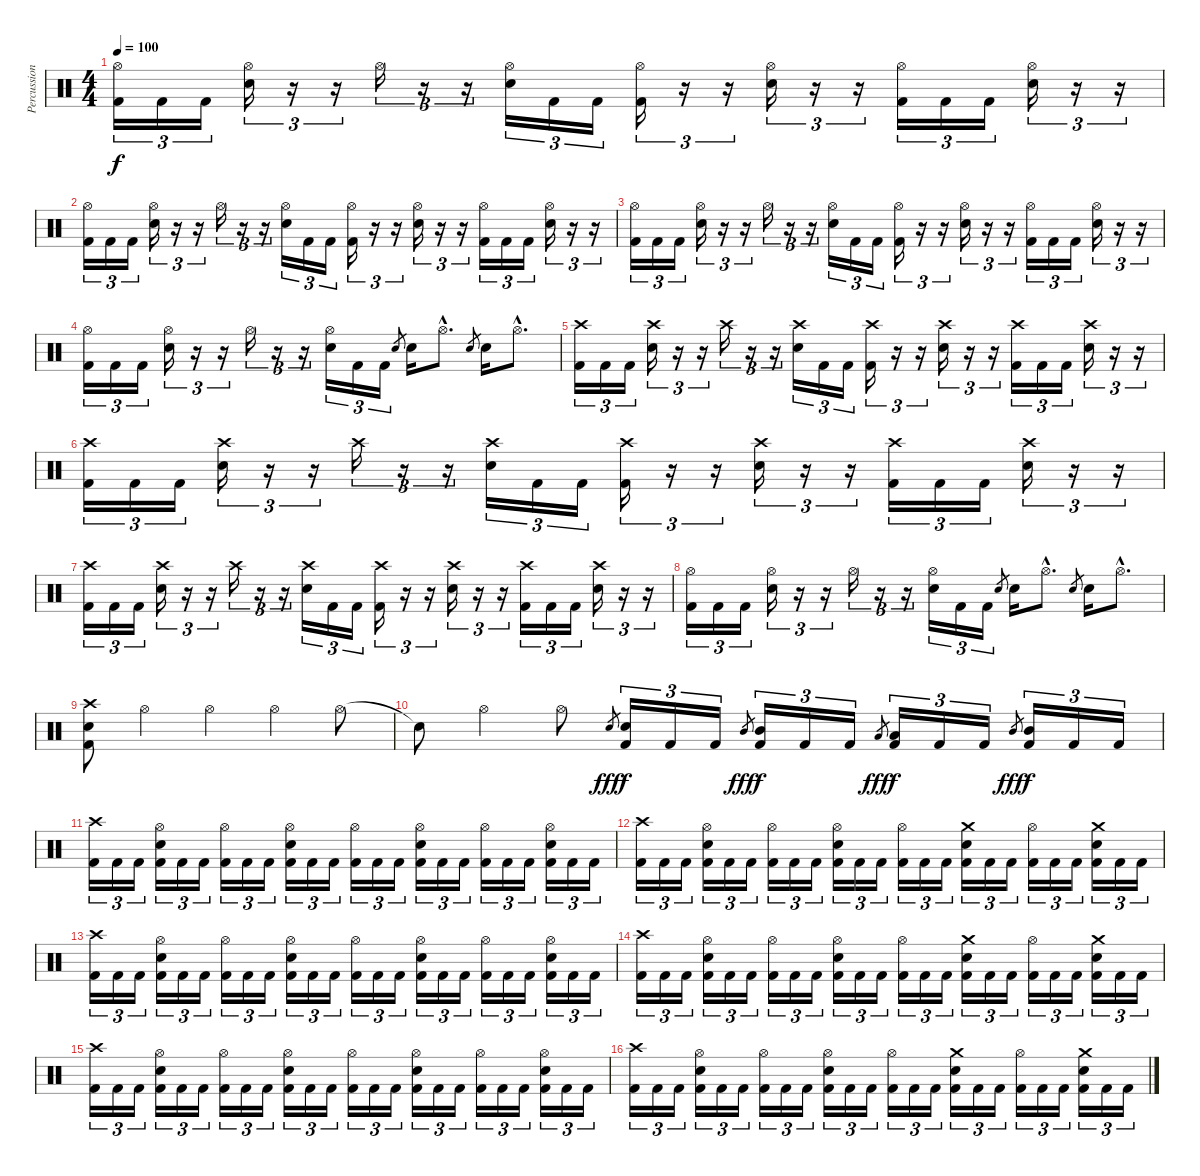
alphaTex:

\track ("Percussion" "Percussion") {instrument percussion}
\staff {score}
\articulation defaults
\ts (4 4)
\tempo 100
\clef neutral
\ks c
("Hi-Hat (open)" "Kick (hit) 2").16{tu (3 2) dy f} "Kick (hit) 2".16{tu (3 2)} "Kick (hit) 2".16{tu (3 2)} ("Hi-Hat (open)" "Electric Snare (hit)").16{tu (3 2)} r.16{tu (3 2)} r.16{tu (3 2)} "Hi-Hat (open)".16{tu (3 2)} r.16{tu (3 2)} r.16{tu (3 2)} ("Hi-Hat (open)" "Electric Snare (hit)").16{tu (3 2)} "Kick (hit) 2".16{tu (3 2)} "Kick (hit) 2".16{tu (3 2)} ("Hi-Hat (open)" "Kick (hit) 2").16{tu (3 2)} r.16{tu (3 2)} r.16{tu (3 2)} ("Hi-Hat (open)" "Electric Snare (hit)").16{tu (3 2)} r.16{tu (3 2)} r.16{tu (3 2)} ("Hi-Hat (open)" "Kick (hit) 2").16{tu (3 2)} "Kick (hit) 2".16{tu (3 2)} "Kick (hit) 2".16{tu (3 2)} ("Hi-Hat (open)" "Electric Snare (hit)").16{tu (3 2)} r.16{tu (3 2)} r.16{tu (3 2)} |
("Hi-Hat (open)" "Kick (hit) 2").16{tu (3 2)} "Kick (hit) 2".16{tu (3 2)} "Kick (hit) 2".16{tu (3 2)} ("Hi-Hat (open)" "Electric Snare (hit)").16{tu (3 2)} r.16{tu (3 2)} r.16{tu (3 2)} "Hi-Hat (open)".16{tu (3 2)} r.16{tu (3 2)} r.16{tu (3 2)} ("Hi-Hat (open)" "Electric Snare (hit)").16{tu (3 2)} "Kick (hit) 2".16{tu (3 2)} "Kick (hit) 2".16{tu (3 2)} ("Hi-Hat (open)" "Kick (hit) 2").16{tu (3 2)} r.16{tu (3 2)} r.16{tu (3 2)} ("Hi-Hat (open)" "Electric Snare (hit)").16{tu (3 2)} r.16{tu (3 2)} r.16{tu (3 2)} ("Hi-Hat (open)" "Kick (hit) 2").16{tu (3 2)} "Kick (hit) 2".16{tu (3 2)} "Kick (hit) 2".16{tu (3 2)} ("Hi-Hat (open)" "Electric Snare (hit)").16{tu (3 2)} r.16{tu (3 2)} r.16{tu (3 2)} |
("Hi-Hat (open)" "Kick (hit) 2").16{tu (3 2)} "Kick (hit) 2".16{tu (3 2)} "Kick (hit) 2".16{tu (3 2)} ("Hi-Hat (open)" "Electric Snare (hit)").16{tu (3 2)} r.16{tu (3 2)} r.16{tu (3 2)} "Hi-Hat (open)".16{tu (3 2)} r.16{tu (3 2)} r.16{tu (3 2)} ("Hi-Hat (open)" "Electric Snare (hit)").16{tu (3 2)} "Kick (hit) 2".16{tu (3 2)} "Kick (hit) 2".16{tu (3 2)} ("Hi-Hat (open)" "Kick (hit) 2").16{tu (3 2)} r.16{tu (3 2)} r.16{tu (3 2)} ("Hi-Hat (open)" "Electric Snare (hit)").16{tu (3 2)} r.16{tu (3 2)} r.16{tu (3 2)} ("Hi-Hat (open)" "Kick (hit) 2").16{tu (3 2)} "Kick (hit) 2".16{tu (3 2)} "Kick (hit) 2".16{tu (3 2)} ("Hi-Hat (open)" "Electric Snare (hit)").16{tu (3 2)} r.16{tu (3 2)} r.16{tu (3 2)} |
("Hi-Hat (open)" "Kick (hit) 2").16{tu (3 2)} "Kick (hit) 2".16{tu (3 2)} "Kick (hit) 2".16{tu (3 2)} ("Hi-Hat (open)" "Electric Snare (hit)").16{tu (3 2)} r.16{tu (3 2)} r.16{tu (3 2)} "Hi-Hat (open)".16{tu (3 2)} r.16{tu (3 2)} r.16{tu (3 2)} ("Hi-Hat (open)" "Electric Snare (hit)").16{tu (3 2)} "Kick (hit) 2".16{tu (3 2)} "Kick (hit) 2".16{tu (3 2)} "Electric Snare (hit)".8{gr} "Electric Snare (hit)".16 "Hi-Hat (open)"{hac}.8{d} "Electric Snare (hit)".8{gr} "Electric Snare (hit)".16 "Hi-Hat (open)"{hac}.8{d} |
("Crash high (hit)" "Kick (hit) 2").16{tu (3 2)} "Kick (hit) 2".16{tu (3 2)} "Kick (hit) 2".16{tu (3 2)} ("Crash high (hit)" "Electric Snare (hit)").16{tu (3 2)} r.16{tu (3 2)} r.16{tu (3 2)} "Crash high (hit)".16{tu (3 2)} r.16{tu (3 2)} r.16{tu (3 2)} ("Crash high (hit)" "Electric Snare (hit)").16{tu (3 2)} "Kick (hit) 2".16{tu (3 2)} "Kick (hit) 2".16{tu (3 2)} ("Crash high (hit)" "Kick (hit) 2").16{tu (3 2)} r.16{tu (3 2)} r.16{tu (3 2)} ("Crash high (hit)" "Electric Snare (hit)").16{tu (3 2)} r.16{tu (3 2)} r.16{tu (3 2)} ("Crash high (hit)" "Kick (hit) 2").16{tu (3 2)} "Kick (hit) 2".16{tu (3 2)} "Kick (hit) 2".16{tu (3 2)} ("Crash high (hit)" "Electric Snare (hit)").16{tu (3 2)} r.16{tu (3 2)} r.16{tu (3 2)} |
("Crash high (hit)" "Kick (hit) 2").16{tu (3 2)} "Kick (hit) 2".16{tu (3 2)} "Kick (hit) 2".16{tu (3 2)} ("Crash high (hit)" "Electric Snare (hit)").16{tu (3 2)} r.16{tu (3 2)} r.16{tu (3 2)} "Crash high (hit)".16{tu (3 2)} r.16{tu (3 2)} r.16{tu (3 2)} ("Crash high (hit)" "Electric Snare (hit)").16{tu (3 2)} "Kick (hit) 2".16{tu (3 2)} "Kick (hit) 2".16{tu (3 2)} ("Crash high (hit)" "Kick (hit) 2").16{tu (3 2)} r.16{tu (3 2)} r.16{tu (3 2)} ("Crash high (hit)" "Electric Snare (hit)").16{tu (3 2)} r.16{tu (3 2)} r.16{tu (3 2)} ("Crash high (hit)" "Kick (hit) 2").16{tu (3 2)} "Kick (hit) 2".16{tu (3 2)} "Kick (hit) 2".16{tu (3 2)} ("Crash high (hit)" "Electric Snare (hit)").16{tu (3 2)} r.16{tu (3 2)} r.16{tu (3 2)} |
("Crash high (hit)" "Kick (hit) 2").16{tu (3 2)} "Kick (hit) 2".16{tu (3 2)} "Kick (hit) 2".16{tu (3 2)} ("Crash high (hit)" "Electric Snare (hit)").16{tu (3 2)} r.16{tu (3 2)} r.16{tu (3 2)} "Crash high (hit)".16{tu (3 2)} r.16{tu (3 2)} r.16{tu (3 2)} ("Crash high (hit)" "Electric Snare (hit)").16{tu (3 2)} "Kick (hit) 2".16{tu (3 2)} "Kick (hit) 2".16{tu (3 2)} ("Crash high (hit)" "Kick (hit) 2").16{tu (3 2)} r.16{tu (3 2)} r.16{tu (3 2)} ("Crash high (hit)" "Electric Snare (hit)").16{tu (3 2)} r.16{tu (3 2)} r.16{tu (3 2)} ("Crash high (hit)" "Kick (hit) 2").16{tu (3 2)} "Kick (hit) 2".16{tu (3 2)} "Kick (hit) 2".16{tu (3 2)} ("Crash high (hit)" "Electric Snare (hit)").16{tu (3 2)} r.16{tu (3 2)} r.16{tu (3 2)} |
("Hi-Hat (open)" "Kick (hit) 2").16{tu (3 2)} "Kick (hit) 2".16{tu (3 2)} "Kick (hit) 2".16{tu (3 2)} ("Hi-Hat (open)" "Electric Snare (hit)").16{tu (3 2)} r.16{tu (3 2)} r.16{tu (3 2)} "Hi-Hat (open)".16{tu (3 2)} r.16{tu (3 2)} r.16{tu (3 2)} ("Hi-Hat (open)" "Electric Snare (hit)").16{tu (3 2)} "Kick (hit) 2".16{tu (3 2)} "Kick (hit) 2".16{tu (3 2)} "Electric Snare (hit)".8{gr} "Electric Snare (hit)".16 "Hi-Hat (open)"{hac}.8{d} "Electric Snare (hit)".8{gr} "Electric Snare (hit)".16 "Hi-Hat (open)"{hac}.8{d} |
("Crash high (hit)" "Electric Snare (hit)" "Kick (hit) 2").8 "Hi-Hat (open)".4 "Hi-Hat (open)".4 "Hi-Hat (open)".4 "Hi-Hat (open)".8 |
"Snare (hit)"{t}.8 "Hi-Hat (open)".4 "Hi-Hat (open)".8 "Electric Snare (hit)".8{gr dy fff} ("Electric Snare (hit)" "Kick (hit) 2").16{tu (3 2) dy f} "Kick (hit) 2".16{tu (3 2)} "Kick (hit) 2".16{tu (3 2)} "Mid Tom (hit)".8{gr dy fff} ("Mid Tom (hit)" "Kick (hit) 2").16{tu (3 2) dy f} "Kick (hit) 2".16{tu (3 2)} "Kick (hit) 2".16{tu (3 2)} "Low Tom (hit)".8{gr dy fff} ("Low Tom (hit)" "Kick (hit) 2").16{tu (3 2) dy f} "Kick (hit) 2".16{tu (3 2)} "Kick (hit) 2".16{tu (3 2)} "Mid Tom (hit)".8{gr dy fff} ("Mid Tom (hit)" "Kick (hit) 2").16{tu (3 2) dy f} "Kick (hit) 2".16{tu (3 2)} "Kick (hit) 2".16{tu (3 2)} |
("Crash high (hit)" "Kick (hit) 2").16{tu (3 2)} "Kick (hit) 2".16{tu (3 2)} "Kick (hit) 2".16{tu (3 2)} ("Hi-Hat (open)" "Electric Snare (hit)" "Kick (hit) 2").16{tu (3 2)} "Kick (hit) 2".16{tu (3 2)} "Kick (hit) 2".16{tu (3 2)} ("Hi-Hat (open)" "Kick (hit) 2").16{tu (3 2)} "Kick (hit) 2".16{tu (3 2)} "Kick (hit) 2".16{tu (3 2)} ("Hi-Hat (open)" "Electric Snare (hit)" "Kick (hit) 2").16{tu (3 2)} "Kick (hit) 2".16{tu (3 2)} "Kick (hit) 2".16{tu (3 2)} ("Hi-Hat (open)" "Kick (hit) 2").16{tu (3 2)} "Kick (hit) 2".16{tu (3 2)} "Kick (hit) 2".16{tu (3 2)} ("Hi-Hat (open)" "Electric Snare (hit)" "Kick (hit) 2").16{tu (3 2)} "Kick (hit) 2".16{tu (3 2)} "Kick (hit) 2".16{tu (3 2)} ("Hi-Hat (open)" "Kick (hit) 2").16{tu (3 2)} "Kick (hit) 2".16{tu (3 2)} "Kick (hit) 2".16{tu (3 2)} ("Hi-Hat (open)" "Electric Snare (hit)" "Kick (hit) 2").16{tu (3 2)} "Kick (hit) 2".16{tu (3 2)} "Kick (hit) 2".16{tu (3 2)} |
("Crash high (hit)" "Kick (hit) 2").16{tu (3 2)} "Kick (hit) 2".16{tu (3 2)} "Kick (hit) 2".16{tu (3 2)} ("Hi-Hat (open)" "Electric Snare (hit)" "Kick (hit) 2").16{tu (3 2)} "Kick (hit) 2".16{tu (3 2)} "Kick (hit) 2".16{tu (3 2)} ("Hi-Hat (open)" "Kick (hit) 2").16{tu (3 2)} "Kick (hit) 2".16{tu (3 2)} "Kick (hit) 2".16{tu (3 2)} ("Hi-Hat (open)" "Electric Snare (hit)" "Kick (hit) 2").16{tu (3 2)} "Kick (hit) 2".16{tu (3 2)} "Kick (hit) 2".16{tu (3 2)} ("Hi-Hat (open)" "Kick (hit) 2").16{tu (3 2)} "Kick (hit) 2".16{tu (3 2)} "Kick (hit) 2".16{tu (3 2)} ("Crash medium (hit)" "Electric Snare (hit)" "Kick (hit) 2").16{tu (3 2)} "Kick (hit) 2".16{tu (3 2)} "Kick (hit) 2".16{tu (3 2)} ("Hi-Hat (open)" "Kick (hit) 2").16{tu (3 2)} "Kick (hit) 2".16{tu (3 2)} "Kick (hit) 2".16{tu (3 2)} ("Crash medium (hit)" "Electric Snare (hit)" "Kick (hit) 2").16{tu (3 2)} "Kick (hit) 2".16{tu (3 2)} "Kick (hit) 2".16{tu (3 2)} |
("Crash high (hit)" "Kick (hit) 2").16{tu (3 2)} "Kick (hit) 2".16{tu (3 2)} "Kick (hit) 2".16{tu (3 2)} ("Hi-Hat (open)" "Electric Snare (hit)" "Kick (hit) 2").16{tu (3 2)} "Kick (hit) 2".16{tu (3 2)} "Kick (hit) 2".16{tu (3 2)} ("Hi-Hat (open)" "Kick (hit) 2").16{tu (3 2)} "Kick (hit) 2".16{tu (3 2)} "Kick (hit) 2".16{tu (3 2)} ("Hi-Hat (open)" "Electric Snare (hit)" "Kick (hit) 2").16{tu (3 2)} "Kick (hit) 2".16{tu (3 2)} "Kick (hit) 2".16{tu (3 2)} ("Hi-Hat (open)" "Kick (hit) 2").16{tu (3 2)} "Kick (hit) 2".16{tu (3 2)} "Kick (hit) 2".16{tu (3 2)} ("Hi-Hat (open)" "Electric Snare (hit)" "Kick (hit) 2").16{tu (3 2)} "Kick (hit) 2".16{tu (3 2)} "Kick (hit) 2".16{tu (3 2)} ("Hi-Hat (open)" "Kick (hit) 2").16{tu (3 2)} "Kick (hit) 2".16{tu (3 2)} "Kick (hit) 2".16{tu (3 2)} ("Hi-Hat (open)" "Electric Snare (hit)" "Kick (hit) 2").16{tu (3 2)} "Kick (hit) 2".16{tu (3 2)} "Kick (hit) 2".16{tu (3 2)} |
("Crash high (hit)" "Kick (hit) 2").16{tu (3 2)} "Kick (hit) 2".16{tu (3 2)} "Kick (hit) 2".16{tu (3 2)} ("Hi-Hat (open)" "Electric Snare (hit)" "Kick (hit) 2").16{tu (3 2)} "Kick (hit) 2".16{tu (3 2)} "Kick (hit) 2".16{tu (3 2)} ("Hi-Hat (open)" "Kick (hit) 2").16{tu (3 2)} "Kick (hit) 2".16{tu (3 2)} "Kick (hit) 2".16{tu (3 2)} ("Hi-Hat (open)" "Electric Snare (hit)" "Kick (hit) 2").16{tu (3 2)} "Kick (hit) 2".16{tu (3 2)} "Kick (hit) 2".16{tu (3 2)} ("Hi-Hat (open)" "Kick (hit) 2").16{tu (3 2)} "Kick (hit) 2".16{tu (3 2)} "Kick (hit) 2".16{tu (3 2)} ("Crash medium (hit)" "Electric Snare (hit)" "Kick (hit) 2").16{tu (3 2)} "Kick (hit) 2".16{tu (3 2)} "Kick (hit) 2".16{tu (3 2)} ("Hi-Hat (open)" "Kick (hit) 2").16{tu (3 2)} "Kick (hit) 2".16{tu (3 2)} "Kick (hit) 2".16{tu (3 2)} ("Crash medium (hit)" "Electric Snare (hit)" "Kick (hit) 2").16{tu (3 2)} "Kick (hit) 2".16{tu (3 2)} "Kick (hit) 2".16{tu (3 2)} |
("Crash high (hit)" "Kick (hit) 2").16{tu (3 2)} "Kick (hit) 2".16{tu (3 2)} "Kick (hit) 2".16{tu (3 2)} ("Hi-Hat (open)" "Electric Snare (hit)" "Kick (hit) 2").16{tu (3 2)} "Kick (hit) 2".16{tu (3 2)} "Kick (hit) 2".16{tu (3 2)} ("Hi-Hat (open)" "Kick (hit) 2").16{tu (3 2)} "Kick (hit) 2".16{tu (3 2)} "Kick (hit) 2".16{tu (3 2)} ("Hi-Hat (open)" "Electric Snare (hit)" "Kick (hit) 2").16{tu (3 2)} "Kick (hit) 2".16{tu (3 2)} "Kick (hit) 2".16{tu (3 2)} ("Hi-Hat (open)" "Kick (hit) 2").16{tu (3 2)} "Kick (hit) 2".16{tu (3 2)} "Kick (hit) 2".16{tu (3 2)} ("Hi-Hat (open)" "Electric Snare (hit)" "Kick (hit) 2").16{tu (3 2)} "Kick (hit) 2".16{tu (3 2)} "Kick (hit) 2".16{tu (3 2)} ("Hi-Hat (open)" "Kick (hit) 2").16{tu (3 2)} "Kick (hit) 2".16{tu (3 2)} "Kick (hit) 2".16{tu (3 2)} ("Hi-Hat (open)" "Electric Snare (hit)" "Kick (hit) 2").16{tu (3 2)} "Kick (hit) 2".16{tu (3 2)} "Kick (hit) 2".16{tu (3 2)} |
("Crash high (hit)" "Kick (hit) 2").16{tu (3 2)} "Kick (hit) 2".16{tu (3 2)} "Kick (hit) 2".16{tu (3 2)} ("Hi-Hat (open)" "Electric Snare (hit)" "Kick (hit) 2").16{tu (3 2)} "Kick (hit) 2".16{tu (3 2)} "Kick (hit) 2".16{tu (3 2)} ("Hi-Hat (open)" "Kick (hit) 2").16{tu (3 2)} "Kick (hit) 2".16{tu (3 2)} "Kick (hit) 2".16{tu (3 2)} ("Hi-Hat (open)" "Electric Snare (hit)" "Kick (hit) 2").16{tu (3 2)} "Kick (hit) 2".16{tu (3 2)} "Kick (hit) 2".16{tu (3 2)} ("Hi-Hat (open)" "Kick (hit) 2").16{tu (3 2)} "Kick (hit) 2".16{tu (3 2)} "Kick (hit) 2".16{tu (3 2)} ("Crash medium (hit)" "Electric Snare (hit)" "Kick (hit) 2").16{tu (3 2)} "Kick (hit) 2".16{tu (3 2)} "Kick (hit) 2".16{tu (3 2)} ("Hi-Hat (open)" "Kick (hit) 2").16{tu (3 2)} "Kick (hit) 2".16{tu (3 2)} "Kick (hit) 2".16{tu (3 2)} ("Crash medium (hit)" "Electric Snare (hit)" "Kick (hit) 2").16{tu (3 2)} "Kick (hit) 2".16{tu (3 2)} "Kick (hit) 2".16{tu (3 2)}
